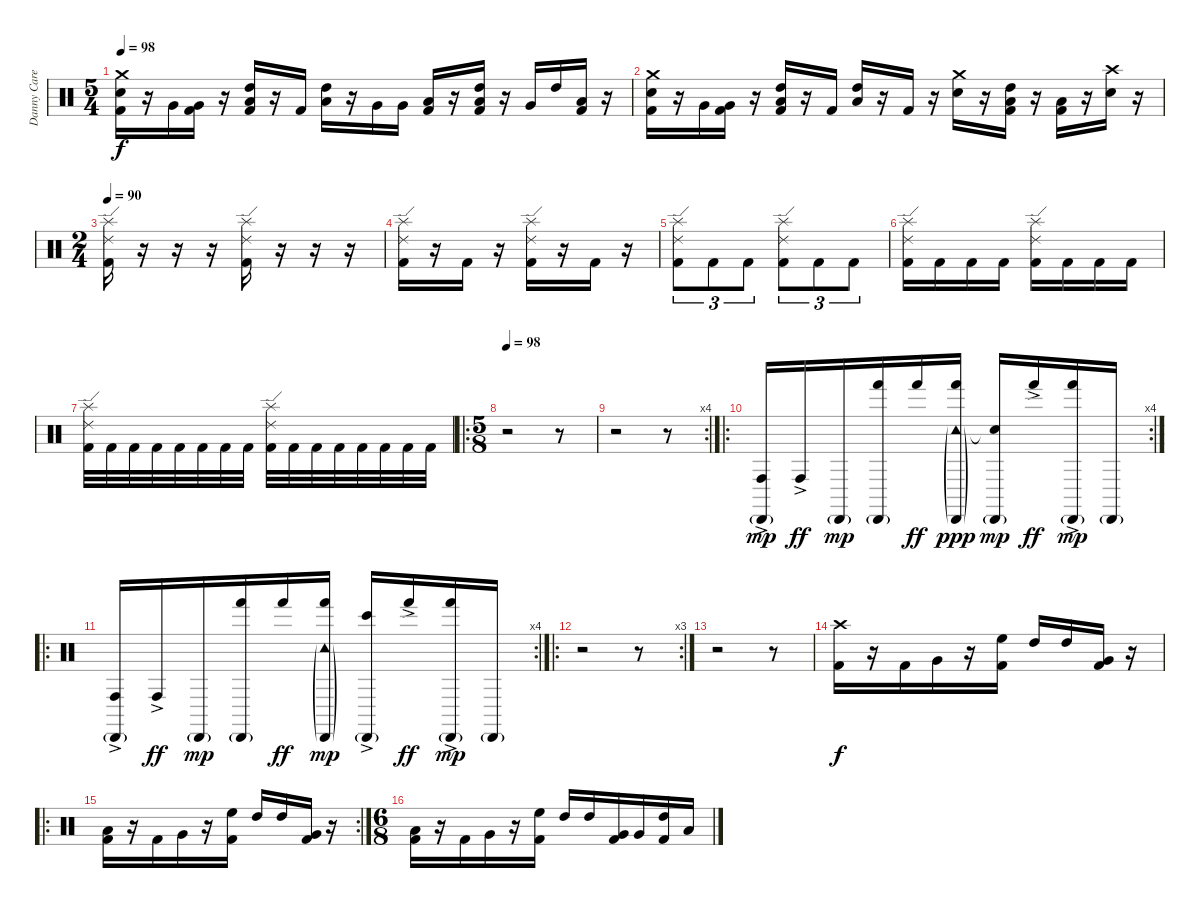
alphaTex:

\track ("Danny Carey" "Danny Care") {instrument percussion}
\staff {score}
\articulation defaults
\ts (5 4)
\tempo 98
\clef neutral
\ks c
("Crash medium (hit)" "Electric Snare (hit)" "Kick (hit) 2").16{dy f} r.16 "Very Low Tom (hit)".16 ("Very Low Tom (hit)" "Kick (hit) 2").16 r.16 ("High Tom (hit)" "Low Floor Tom (hit)" "Kick (hit) 2").16 r.16 "Kick (hit) 2".16 ("High Tom (hit)" "Low Floor Tom (hit)").16 r.16 "Very Low Tom (hit)".16 "Very Low Tom (hit)".16 ("Low Floor Tom (hit)" "Kick (hit) 2").16 r.16 ("High Tom (hit)" "Low Floor Tom (hit)" "Kick (hit) 2").16 r.16 "Very Low Tom (hit)".16 "High Tom (hit)".16 ("Low Floor Tom (hit)" "Kick (hit) 2").16 r.16 |
("Crash medium (hit)" "Electric Snare (hit)" "Kick (hit) 2").16 r.16 "Very Low Tom (hit)".16 ("Very Low Tom (hit)" "Kick (hit) 2").16 r.16 ("High Tom (hit)" "Low Floor Tom (hit)" "Kick (hit) 2").16 r.16 "Kick (hit) 2".16 ("High Tom (hit)" "Low Floor Tom (hit)").16 r.16 "Kick (hit) 2".16 r.16 ("Crash medium (hit)" "Electric Snare (hit)").16 r.16 ("High Tom (hit)" "Low Floor Tom (hit)" "Kick (hit) 2").16 r.16 ("Low Floor Tom (hit)" "Kick (hit) 2").16 r.16 ("Crash high (hit)" "Electric Snare (hit)").16 r.16 |
\ts (2 4)
\tempo 90
("Ride (edge) 2" "Splash (hit)" "Kick (hit) 2").16 r.16 r.16 r.16 ("Ride (edge) 2" "Splash (hit)" "Kick (hit) 2").16 r.16 r.16 r.16 |
("Ride (edge) 2" "Splash (hit)" "Kick (hit) 2").16 r.16 "Kick (hit) 2".16 r.16 ("Ride (edge) 2" "Splash (hit)" "Kick (hit) 2").16 r.16 "Kick (hit) 2".16 r.16 |
("Ride (edge) 2" "Splash (hit)" "Kick (hit) 2").8{tu (3 2)} "Kick (hit) 2".8{tu (3 2)} "Kick (hit) 2".8{tu (3 2)} ("Ride (edge) 2" "Splash (hit)" "Kick (hit) 2").8{tu (3 2)} "Kick (hit) 2".8{tu (3 2)} "Kick (hit) 2".8{tu (3 2)} |
("Ride (edge) 2" "Splash (hit)" "Kick (hit) 2").16 "Kick (hit) 2".16 "Kick (hit) 2".16 "Kick (hit) 2".16 ("Ride (edge) 2" "Splash (hit)" "Kick (hit) 2").16 "Kick (hit) 2".16 "Kick (hit) 2".16 "Kick (hit) 2".16 |
("Ride (edge) 2" "Splash (hit)" "Kick (hit) 2").32 "Kick (hit) 2".32 "Kick (hit) 2".32 "Kick (hit) 2".32 "Kick (hit) 2".32 "Kick (hit) 2".32 "Kick (hit) 2".32 "Kick (hit) 2".32 ("Ride (edge) 2" "Splash (hit)" "Kick (hit) 2").32 "Kick (hit) 2".32 "Kick (hit) 2".32 "Kick (hit) 2".32 "Kick (hit) 2".32 "Kick (hit) 2".32 "Kick (hit) 2".32 "Kick (hit) 2".32 |
\ro
\ts (5 8)
\tempo 98
r.2 r.8 |
\rc 4
r.2 r.8 |
\ro
\rc 4
("Conga high (hit)"{ac} "Cabasa (hit)"{g}).16{dy mp} "Conga high (hit)"{ac}.16{dy ff} "Cabasa (hit)"{g}.16{dy mp} ("Hand (hit)" "Cabasa (hit)"{g}).16 "Hand (hit)".16{dy ff} ("Tambourine (hit)"{g} "Hand (hit)" "Cabasa (hit)"{g}).16{dy ppp} ("Snare (hit)"{t} "Cabasa (hit)"{g}).16{dy mp} "Hand (hit)"{ac}.16{dy ff} ("Hand (hit)"{ac} "Cabasa (hit)"{g}).16{dy mp} "Cabasa (hit)"{g}.16 |
\ro
\rc 4
("Conga high (hit)"{ac} "Cabasa (hit)"{g}).16 "Conga high (hit)"{ac}.16{dy ff} "Cabasa (hit)"{g}.16{dy mp} ("Hand (hit)" "Cabasa (hit)"{g}).16 "Hand (hit)".16{dy ff} ("Tambourine (hit)"{g} "Hand (hit)" "Cabasa (hit)"{g}).16{dy mp} ("Bongo High (hit)"{ac} "Cabasa (hit)"{g}).16 "Hand (hit)"{ac}.16{dy ff} ("Hand (hit)"{ac} "Cabasa (hit)"{g}).16{dy mp} "Cabasa (hit)"{g}.16 |
\ro
\rc 3
r.2 r.8 |
r.2 r.8 |
("Crash high (hit)" "Kick (hit) 2").16{dy f} r.16 "Kick (hit) 2".16 "Very Low Tom (hit)".16 r.16 ("High Floor Tom (hit)" "Kick (hit) 2").16 "High Tom (hit)".16 "High Tom (hit)".16 ("Very Low Tom (hit)" "Kick (hit) 2").16 r.16 |
\ro
\rc 2
("Low Floor Tom (hit)" "Kick (hit) 2").16 r.16 "Kick (hit) 2".16 "Very Low Tom (hit)".16 r.16 ("High Floor Tom (hit)" "Kick (hit) 2").16 "High Tom (hit)".16 "High Tom (hit)".16 ("Very Low Tom (hit)" "Kick (hit) 2").16 r.16 |
\ts (6 8)
("Low Floor Tom (hit)" "Kick (hit) 2").16 r.16 "Kick (hit) 2".16 "Very Low Tom (hit)".16 r.16 ("High Floor Tom (hit)" "Kick (hit) 2").16 "High Tom (hit)".16 "High Tom (hit)".16 ("Very Low Tom (hit)" "Kick (hit) 2").16 "Very Low Tom (hit)".16 ("High Tom (hit)" "Kick (hit) 2").16 "Low Floor Tom (hit)".16
